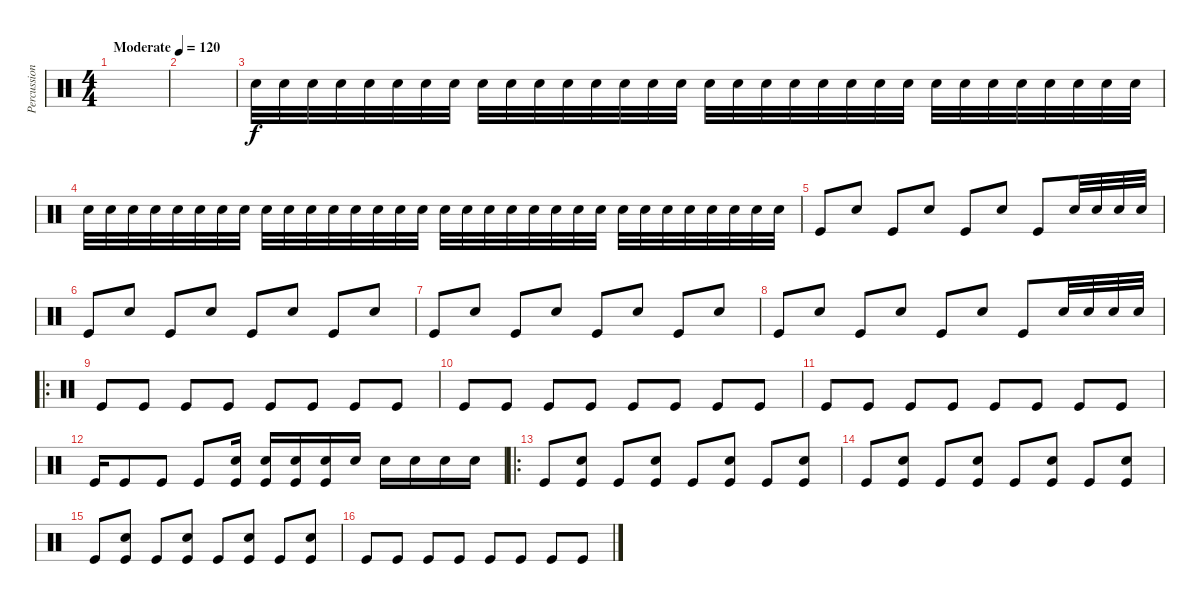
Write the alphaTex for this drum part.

\track ("Percussion" "Percussion") {instrument percussion}
\staff {score}
\articulation defaults
\ts (4 4)
\tempo (120 "Moderate")
\clef neutral
\ks c
|
|
"Snare (hit) 2".32 "Snare (hit) 2".32 "Snare (hit) 2".32 "Snare (hit) 2".32 "Snare (hit) 2".32 "Snare (hit) 2".32 "Snare (hit) 2".32 "Snare (hit) 2".32{volume 5} "Snare (hit) 2".32 "Snare (hit) 2".32 "Snare (hit) 2".32 "Snare (hit) 2".32 "Snare (hit) 2".32 "Snare (hit) 2".32 "Snare (hit) 2".32 "Snare (hit) 2".32 "Snare (hit) 2".32 "Snare (hit) 2".32 "Snare (hit) 2".32 "Snare (hit) 2".32 "Snare (hit) 2".32 "Snare (hit) 2".32 "Snare (hit) 2".32 "Snare (hit) 2".32{volume 7} "Snare (hit) 2".32 "Snare (hit) 2".32 "Snare (hit) 2".32 "Snare (hit) 2".32 "Snare (hit) 2".32 "Snare (hit) 2".32 "Snare (hit) 2".32 "Snare (hit) 2".32{volume 8} |
"Snare (hit) 2".32 "Snare (hit) 2".32 "Snare (hit) 2".32 "Snare (hit) 2".32 "Snare (hit) 2".32 "Snare (hit) 2".32 "Snare (hit) 2".32 "Snare (hit) 2".32{volume 10} "Snare (hit) 2".32 "Snare (hit) 2".32 "Snare (hit) 2".32 "Snare (hit) 2".32 "Snare (hit) 2".32 "Snare (hit) 2".32 "Snare (hit) 2".32 "Snare (hit) 2".32{volume 12} "Snare (hit) 2".32 "Snare (hit) 2".32 "Snare (hit) 2".32 "Snare (hit) 2".32 "Snare (hit) 2".32 "Snare (hit) 2".32 "Snare (hit) 2".32 "Snare (hit) 2".32{volume 14} "Snare (hit) 2".32 "Snare (hit) 2".32 "Snare (hit) 2".32{volume 15} "Snare (hit) 2".32 "Snare (hit) 2".32 "Snare (hit) 2".32{volume 16} "Snare (hit) 2".32 "Snare (hit) 2".32 |
"Kick (hit)".8 "Snare (hit) 2".8 "Kick (hit)".8 "Snare (hit) 2".8 "Kick (hit)".8 "Snare (hit) 2".8 "Kick (hit)".8 "Snare (hit) 2".32 "Snare (hit) 2".32 "Snare (hit) 2".32 "Snare (hit) 2".32 |
"Kick (hit)".8 "Snare (hit) 2".8 "Kick (hit)".8 "Snare (hit) 2".8 "Kick (hit)".8 "Snare (hit) 2".8 "Kick (hit)".8 "Snare (hit) 2".8 |
"Kick (hit)".8 "Snare (hit) 2".8 "Kick (hit)".8 "Snare (hit) 2".8 "Kick (hit)".8 "Snare (hit) 2".8 "Kick (hit)".8 "Snare (hit) 2".8 |
"Kick (hit)".8 "Snare (hit) 2".8 "Kick (hit)".8 "Snare (hit) 2".8 "Kick (hit)".8 "Snare (hit) 2".8 "Kick (hit)".8 "Snare (hit) 2".32 "Snare (hit) 2".32 "Snare (hit) 2".32 "Snare (hit) 2".32 |
\ro "Kick (hit)".8 "Kick (hit)".8 "Kick (hit)".8 "Kick (hit)".8 "Kick (hit)".8 "Kick (hit)".8 "Kick (hit)".8 "Kick (hit)".8
|
"Kick (hit)".8 "Kick (hit)".8 "Kick (hit)".8 "Kick (hit)".8 "Kick (hit)".8 "Kick (hit)".8 "Kick (hit)".8 "Kick (hit)".8 |
"Kick (hit)".8 "Kick (hit)".8 "Kick (hit)".8 "Kick (hit)".8 "Kick (hit)".8 "Kick (hit)".8 "Kick (hit)".8 "Kick (hit)".8 |
"Kick (hit)".16 "Kick (hit)".8 "Kick (hit)".8 "Kick (hit)".8 ("Kick (hit)" "Snare (hit) 2").16 ("Kick (hit)" "Snare (hit) 2").16 ("Kick (hit)" "Snare (hit) 2").16 ("Kick (hit)" "Snare (hit) 2").16 "Snare (hit) 2".16 "Snare (hit) 2".16 "Snare (hit) 2".16 "Snare (hit) 2".16 "Snare (hit) 2".16 |
\ro "Kick (hit)".8
("Kick (hit)" "Snare (hit) 2").8 "Kick (hit)".8 ("Kick (hit)" "Snare (hit) 2").8 "Kick (hit)".8 ("Kick (hit)" "Snare (hit) 2").8 "Kick (hit)".8 ("Kick (hit)" "Snare (hit) 2").8 |
"Kick (hit)".8 ("Kick (hit)" "Snare (hit) 2").8 "Kick (hit)".8 ("Kick (hit)" "Snare (hit) 2").8 "Kick (hit)".8 ("Kick (hit)" "Snare (hit) 2").8 "Kick (hit)".8 ("Kick (hit)" "Snare (hit) 2").8 |
"Kick (hit)".8 ("Kick (hit)" "Snare (hit) 2").8 "Kick (hit)".8 ("Kick (hit)" "Snare (hit) 2").8 "Kick (hit)".8 ("Kick (hit)" "Snare (hit) 2").8 "Kick (hit)".8 ("Kick (hit)" "Snare (hit) 2").8 |
"Kick (hit)".8 "Kick (hit)".8 "Kick (hit)".8 "Kick (hit)".8 "Kick (hit)".8 "Kick (hit)".8 "Kick (hit)".8 "Kick (hit)".8
